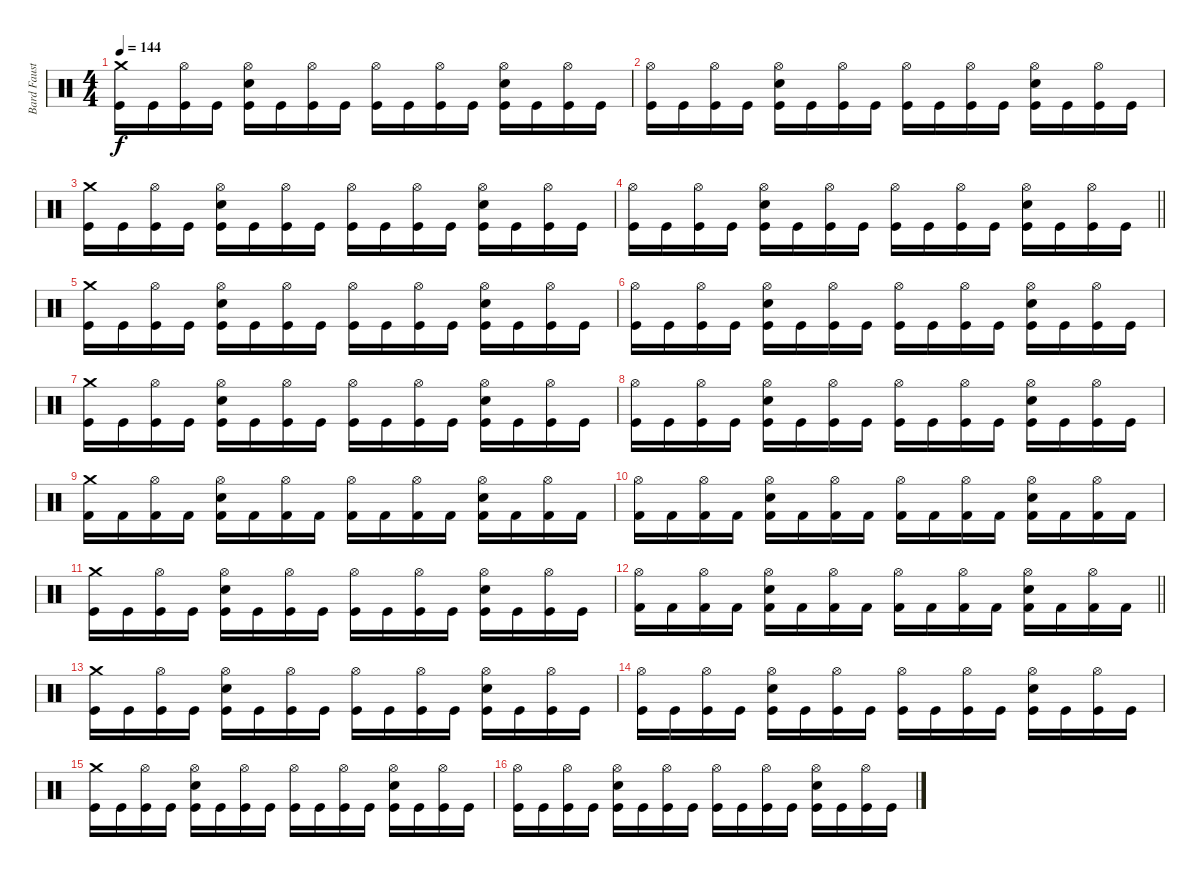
\track ("Bard Faust" "Bard Faust") {instrument percussion}
\staff {score}
\articulation defaults
\ts (4 4)
\tempo 144
\clef neutral
\ks c
("Crash medium (hit)" "Kick (hit)").16{dy f} "Kick (hit)".16 ("Hi-Hat (open)" "Kick (hit)").16 "Kick (hit)".16 ("Hi-Hat (open)" "Snare (hit) 2" "Kick (hit)").16 "Kick (hit)".16 ("Hi-Hat (open)" "Kick (hit)").16 "Kick (hit)".16 ("Hi-Hat (open)" "Kick (hit)").16 "Kick (hit)".16 ("Hi-Hat (open)" "Kick (hit)").16 "Kick (hit)".16 ("Hi-Hat (open)" "Snare (hit) 2" "Kick (hit)").16 "Kick (hit)".16 ("Hi-Hat (open)" "Kick (hit)").16 "Kick (hit)".16 |
("Hi-Hat (open)" "Kick (hit)").16 "Kick (hit)".16 ("Hi-Hat (open)" "Kick (hit)").16 "Kick (hit)".16 ("Hi-Hat (open)" "Snare (hit) 2" "Kick (hit)").16 "Kick (hit)".16 ("Hi-Hat (open)" "Kick (hit)").16 "Kick (hit)".16 ("Hi-Hat (open)" "Kick (hit)").16 "Kick (hit)".16 ("Hi-Hat (open)" "Kick (hit)").16 "Kick (hit)".16 ("Hi-Hat (open)" "Snare (hit) 2" "Kick (hit)").16 "Kick (hit)".16 ("Hi-Hat (open)" "Kick (hit)").16 "Kick (hit)".16 |
("Crash medium (hit)" "Kick (hit)").16 "Kick (hit)".16 ("Hi-Hat (open)" "Kick (hit)").16 "Kick (hit)".16 ("Hi-Hat (open)" "Snare (hit) 2" "Kick (hit)").16 "Kick (hit)".16 ("Hi-Hat (open)" "Kick (hit)").16 "Kick (hit)".16 ("Hi-Hat (open)" "Kick (hit)").16 "Kick (hit)".16 ("Hi-Hat (open)" "Kick (hit)").16 "Kick (hit)".16 ("Hi-Hat (open)" "Snare (hit) 2" "Kick (hit)").16 "Kick (hit)".16 ("Hi-Hat (open)" "Kick (hit)").16 "Kick (hit)".16 |
\barLineRight lightlight
("Hi-Hat (open)" "Kick (hit)").16 "Kick (hit)".16 ("Hi-Hat (open)" "Kick (hit)").16 "Kick (hit)".16 ("Hi-Hat (open)" "Snare (hit) 2" "Kick (hit)").16 "Kick (hit)".16 ("Hi-Hat (open)" "Kick (hit)").16 "Kick (hit)".16 ("Hi-Hat (open)" "Kick (hit)").16 "Kick (hit)".16 ("Hi-Hat (open)" "Kick (hit)").16 "Kick (hit)".16 ("Hi-Hat (open)" "Snare (hit) 2" "Kick (hit)").16 "Kick (hit)".16 ("Hi-Hat (open)" "Kick (hit)").16 "Kick (hit)".16 |
\section ("" "")
("Crash medium (hit)" "Kick (hit)").16 "Kick (hit)".16 ("Hi-Hat (open)" "Kick (hit)").16 "Kick (hit)".16 ("Hi-Hat (open)" "Snare (hit) 2" "Kick (hit)").16 "Kick (hit)".16 ("Hi-Hat (open)" "Kick (hit)").16 "Kick (hit)".16 ("Hi-Hat (open)" "Kick (hit)").16 "Kick (hit)".16 ("Hi-Hat (open)" "Kick (hit)").16 "Kick (hit)".16 ("Hi-Hat (open)" "Snare (hit) 2" "Kick (hit)").16 "Kick (hit)".16 ("Hi-Hat (open)" "Kick (hit)").16 "Kick (hit)".16 |
("Hi-Hat (open)" "Kick (hit)").16 "Kick (hit)".16 ("Hi-Hat (open)" "Kick (hit)").16 "Kick (hit)".16 ("Hi-Hat (open)" "Snare (hit) 2" "Kick (hit)").16 "Kick (hit)".16 ("Hi-Hat (open)" "Kick (hit)").16 "Kick (hit)".16 ("Hi-Hat (open)" "Kick (hit)").16 "Kick (hit)".16 ("Hi-Hat (open)" "Kick (hit)").16 "Kick (hit)".16 ("Hi-Hat (open)" "Snare (hit) 2" "Kick (hit)").16 "Kick (hit)".16 ("Hi-Hat (open)" "Kick (hit)").16 "Kick (hit)".16 |
("Crash medium (hit)" "Kick (hit)").16 "Kick (hit)".16 ("Hi-Hat (open)" "Kick (hit)").16 "Kick (hit)".16 ("Hi-Hat (open)" "Snare (hit) 2" "Kick (hit)").16 "Kick (hit)".16 ("Hi-Hat (open)" "Kick (hit)").16 "Kick (hit)".16 ("Hi-Hat (open)" "Kick (hit)").16 "Kick (hit)".16 ("Hi-Hat (open)" "Kick (hit)").16 "Kick (hit)".16 ("Hi-Hat (open)" "Snare (hit) 2" "Kick (hit)").16 "Kick (hit)".16 ("Hi-Hat (open)" "Kick (hit)").16 "Kick (hit)".16 |
("Hi-Hat (open)" "Kick (hit)").16 "Kick (hit)".16 ("Hi-Hat (open)" "Kick (hit)").16 "Kick (hit)".16 ("Hi-Hat (open)" "Snare (hit) 2" "Kick (hit)").16 "Kick (hit)".16 ("Hi-Hat (open)" "Kick (hit)").16 "Kick (hit)".16 ("Hi-Hat (open)" "Kick (hit)").16 "Kick (hit)".16 ("Hi-Hat (open)" "Kick (hit)").16 "Kick (hit)".16 ("Hi-Hat (open)" "Snare (hit) 2" "Kick (hit)").16 "Kick (hit)".16 ("Hi-Hat (open)" "Kick (hit)").16 "Kick (hit)".16 |
("Crash medium (hit)" "Kick (hit) 2").16 "Kick (hit) 2".16 ("Hi-Hat (open)" "Kick (hit) 2").16 "Kick (hit) 2".16 ("Hi-Hat (open)" "Snare (hit) 2" "Kick (hit) 2").16 "Kick (hit) 2".16 ("Hi-Hat (open)" "Kick (hit) 2").16 "Kick (hit) 2".16 ("Hi-Hat (open)" "Kick (hit) 2").16 "Kick (hit) 2".16 ("Hi-Hat (open)" "Kick (hit) 2").16 "Kick (hit) 2".16 ("Hi-Hat (open)" "Snare (hit) 2" "Kick (hit) 2").16 "Kick (hit) 2".16 ("Hi-Hat (open)" "Kick (hit) 2").16 "Kick (hit) 2".16 |
("Hi-Hat (open)" "Kick (hit) 2").16 "Kick (hit) 2".16 ("Hi-Hat (open)" "Kick (hit) 2").16 "Kick (hit) 2".16 ("Hi-Hat (open)" "Snare (hit) 2" "Kick (hit) 2").16 "Kick (hit) 2".16 ("Hi-Hat (open)" "Kick (hit) 2").16 "Kick (hit) 2".16 ("Hi-Hat (open)" "Kick (hit) 2").16 "Kick (hit) 2".16 ("Hi-Hat (open)" "Kick (hit) 2").16 "Kick (hit) 2".16 ("Hi-Hat (open)" "Snare (hit) 2" "Kick (hit) 2").16 "Kick (hit) 2".16 ("Hi-Hat (open)" "Kick (hit) 2").16 "Kick (hit) 2".16 |
("Crash medium (hit)" "Kick (hit)").16 "Kick (hit)".16 ("Hi-Hat (open)" "Kick (hit)").16 "Kick (hit)".16 ("Hi-Hat (open)" "Snare (hit) 2" "Kick (hit)").16 "Kick (hit)".16 ("Hi-Hat (open)" "Kick (hit)").16 "Kick (hit)".16 ("Hi-Hat (open)" "Kick (hit)").16 "Kick (hit)".16 ("Hi-Hat (open)" "Kick (hit)").16 "Kick (hit)".16 ("Hi-Hat (open)" "Snare (hit) 2" "Kick (hit)").16 "Kick (hit)".16 ("Hi-Hat (open)" "Kick (hit)").16 "Kick (hit)".16 |
\barLineRight lightlight
("Hi-Hat (open)" "Kick (hit) 2").16 "Kick (hit) 2".16 ("Hi-Hat (open)" "Kick (hit) 2").16 "Kick (hit) 2".16 ("Hi-Hat (open)" "Snare (hit) 2" "Kick (hit) 2").16 "Kick (hit) 2".16 ("Hi-Hat (open)" "Kick (hit) 2").16 "Kick (hit) 2".16 ("Hi-Hat (open)" "Kick (hit) 2").16 "Kick (hit) 2".16 ("Hi-Hat (open)" "Kick (hit) 2").16 "Kick (hit) 2".16 ("Hi-Hat (open)" "Snare (hit) 2" "Kick (hit) 2").16 "Kick (hit) 2".16 ("Hi-Hat (open)" "Kick (hit) 2").16 "Kick (hit) 2".16 |
\section ("" "")
("Crash medium (hit)" "Kick (hit)").16 "Kick (hit)".16 ("Hi-Hat (open)" "Kick (hit)").16 "Kick (hit)".16 ("Hi-Hat (open)" "Snare (hit) 2" "Kick (hit)").16 "Kick (hit)".16 ("Hi-Hat (open)" "Kick (hit)").16 "Kick (hit)".16 ("Hi-Hat (open)" "Kick (hit)").16 "Kick (hit)".16 ("Hi-Hat (open)" "Kick (hit)").16 "Kick (hit)".16 ("Hi-Hat (open)" "Snare (hit) 2" "Kick (hit)").16 "Kick (hit)".16 ("Hi-Hat (open)" "Kick (hit)").16 "Kick (hit)".16 |
("Hi-Hat (open)" "Kick (hit)").16 "Kick (hit)".16 ("Hi-Hat (open)" "Kick (hit)").16 "Kick (hit)".16 ("Hi-Hat (open)" "Snare (hit) 2" "Kick (hit)").16 "Kick (hit)".16 ("Hi-Hat (open)" "Kick (hit)").16 "Kick (hit)".16 ("Hi-Hat (open)" "Kick (hit)").16 "Kick (hit)".16 ("Hi-Hat (open)" "Kick (hit)").16 "Kick (hit)".16 ("Hi-Hat (open)" "Snare (hit) 2" "Kick (hit)").16 "Kick (hit)".16 ("Hi-Hat (open)" "Kick (hit)").16 "Kick (hit)".16 |
("Crash medium (hit)" "Kick (hit)").16 "Kick (hit)".16 ("Hi-Hat (open)" "Kick (hit)").16 "Kick (hit)".16 ("Hi-Hat (open)" "Snare (hit) 2" "Kick (hit)").16 "Kick (hit)".16 ("Hi-Hat (open)" "Kick (hit)").16 "Kick (hit)".16 ("Hi-Hat (open)" "Kick (hit)").16 "Kick (hit)".16 ("Hi-Hat (open)" "Kick (hit)").16 "Kick (hit)".16 ("Hi-Hat (open)" "Snare (hit) 2" "Kick (hit)").16 "Kick (hit)".16 ("Hi-Hat (open)" "Kick (hit)").16 "Kick (hit)".16 |
("Hi-Hat (open)" "Kick (hit)").16 "Kick (hit)".16 ("Hi-Hat (open)" "Kick (hit)").16 "Kick (hit)".16 ("Hi-Hat (open)" "Snare (hit) 2" "Kick (hit)").16 "Kick (hit)".16 ("Hi-Hat (open)" "Kick (hit)").16 "Kick (hit)".16 ("Hi-Hat (open)" "Kick (hit)").16 "Kick (hit)".16 ("Hi-Hat (open)" "Kick (hit)").16 "Kick (hit)".16 ("Hi-Hat (open)" "Snare (hit) 2" "Kick (hit)").16 "Kick (hit)".16 ("Hi-Hat (open)" "Kick (hit)").16 "Kick (hit)".16
